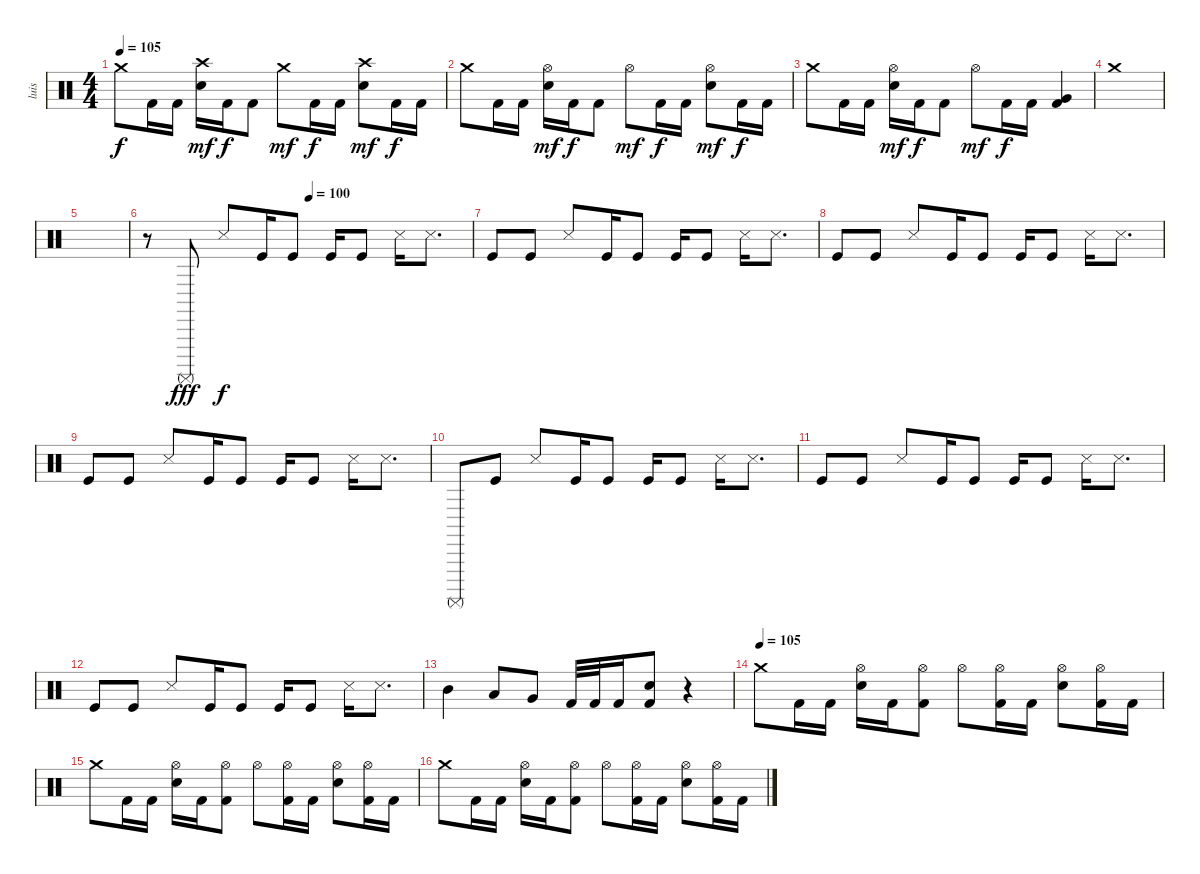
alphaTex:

\track ("luis" "luis") {instrument percussion}
\staff {score}
\articulation defaults
\ts (4 4)
\tempo 105
\clef neutral
\ks c "Crash medium (hit)".8{dy f} "Kick (hit) 2".16 "Kick (hit) 2".16
("Crash high (hit)" "Electric Snare (hit)").16{dy mf} "Kick (hit) 2".16{dy f} "Kick (hit) 2".8 "Crash medium (hit)".8{dy mf} "Kick (hit) 2".16{dy f} "Kick (hit) 2".16 ("Crash high (hit)" "Electric Snare (hit)").8{dy mf} "Kick (hit) 2".16{dy f} "Kick (hit) 2".16 |
"Crash medium (hit)".8 "Kick (hit) 2".16 "Kick (hit) 2".16 ("Hi-Hat (open)" "Electric Snare (hit)").16{dy mf} "Kick (hit) 2".16{dy f} "Kick (hit) 2".8 "Hi-Hat (open)".8{dy mf} "Kick (hit) 2".16{dy f} "Kick (hit) 2".16 ("Hi-Hat (open)" "Electric Snare (hit)").8{dy mf} "Kick (hit) 2".16{dy f} "Kick (hit) 2".16 |
"Crash medium (hit)".8 "Kick (hit) 2".16 "Kick (hit) 2".16 ("Hi-Hat (open)" "Electric Snare (hit)").16{dy mf} "Kick (hit) 2".16{dy f} "Kick (hit) 2".8 "Hi-Hat (open)".8{dy mf} "Kick (hit) 2".16{dy f} "Kick (hit) 2".16 ("Very Low Tom (hit)" "Kick (hit) 2").4 |
"Crash medium (hit)".1 |
|
\tempo (100 0.5)
r.8 "Surdo (mute)".8{dy fff} "Snare (side stick) 3".8{dy f} "Kick (hit)".16 "Kick (hit)".8 "Kick (hit)".16 "Kick (hit)".8 "Snare (side stick) 3".16 "Snare (side stick) 3".8{d} |
"Kick (hit)".8 "Kick (hit)".8 "Snare (side stick) 3".8 "Kick (hit)".16 "Kick (hit)".8 "Kick (hit)".16 "Kick (hit)".8 "Snare (side stick) 3".16 "Snare (side stick) 3".8{d} |
"Kick (hit)".8 "Kick (hit)".8 "Snare (side stick) 3".8 "Kick (hit)".16 "Kick (hit)".8 "Kick (hit)".16 "Kick (hit)".8 "Snare (side stick) 3".16 "Snare (side stick) 3".8{d} |
"Kick (hit)".8 "Kick (hit)".8 "Snare (side stick) 3".8 "Kick (hit)".16 "Kick (hit)".8 "Kick (hit)".16 "Kick (hit)".8 "Snare (side stick) 3".16 "Snare (side stick) 3".8{d} |
"Surdo (mute)".8 "Kick (hit)".8 "Snare (side stick) 3".8 "Kick (hit)".16 "Kick (hit)".8 "Kick (hit)".16 "Kick (hit)".8 "Snare (side stick) 3".16 "Snare (side stick) 3".8{d} |
"Kick (hit)".8 "Kick (hit)".8 "Snare (side stick) 3".8 "Kick (hit)".16 "Kick (hit)".8 "Kick (hit)".16 "Kick (hit)".8 "Snare (side stick) 3".16 "Snare (side stick) 3".8{d} |
"Kick (hit)".8 "Kick (hit)".8 "Snare (side stick) 3".8 "Kick (hit)".16 "Kick (hit)".8 "Kick (hit)".16 "Kick (hit)".8 "Snare (side stick) 3".16 "Snare (side stick) 3".8{d} |
"Mid Tom (hit)".4 "Low Tom (hit)".8 "Very Low Tom (hit)".8 "Kick (hit) 2".32 "Kick (hit) 2".32 "Kick (hit) 2".16 ("Electric Snare (hit)" "Kick (hit) 2").8 r.4 |
\tempo (105)
"Crash medium (hit)".8 "Kick (hit) 2".16 "Kick (hit) 2".16 ("Hi-Hat (open)" "Electric Snare (hit)").16 "Kick (hit) 2".16 ("Hi-Hat (open)" "Kick (hit) 2").8 "Hi-Hat (open)".8 ("Hi-Hat (open)" "Kick (hit) 2").16 "Kick (hit) 2".16 ("Hi-Hat (open)" "Electric Snare (hit)").8 ("Hi-Hat (open)" "Kick (hit) 2").16 "Kick (hit) 2".16 |
"Crash medium (hit)".8 "Kick (hit) 2".16 "Kick (hit) 2".16 ("Hi-Hat (open)" "Electric Snare (hit)").16 "Kick (hit) 2".16 ("Hi-Hat (open)" "Kick (hit) 2").8 "Hi-Hat (open)".8 ("Hi-Hat (open)" "Kick (hit) 2").16 "Kick (hit) 2".16 ("Hi-Hat (open)" "Electric Snare (hit)").8 ("Hi-Hat (open)" "Kick (hit) 2").16 "Kick (hit) 2".16 |
"Crash medium (hit)".8 "Kick (hit) 2".16 "Kick (hit) 2".16 ("Hi-Hat (open)" "Electric Snare (hit)").16 "Kick (hit) 2".16 ("Hi-Hat (open)" "Kick (hit) 2").8 "Hi-Hat (open)".8 ("Hi-Hat (open)" "Kick (hit) 2").16 "Kick (hit) 2".16 ("Hi-Hat (open)" "Electric Snare (hit)").8 ("Hi-Hat (open)" "Kick (hit) 2").16 "Kick (hit) 2".16
